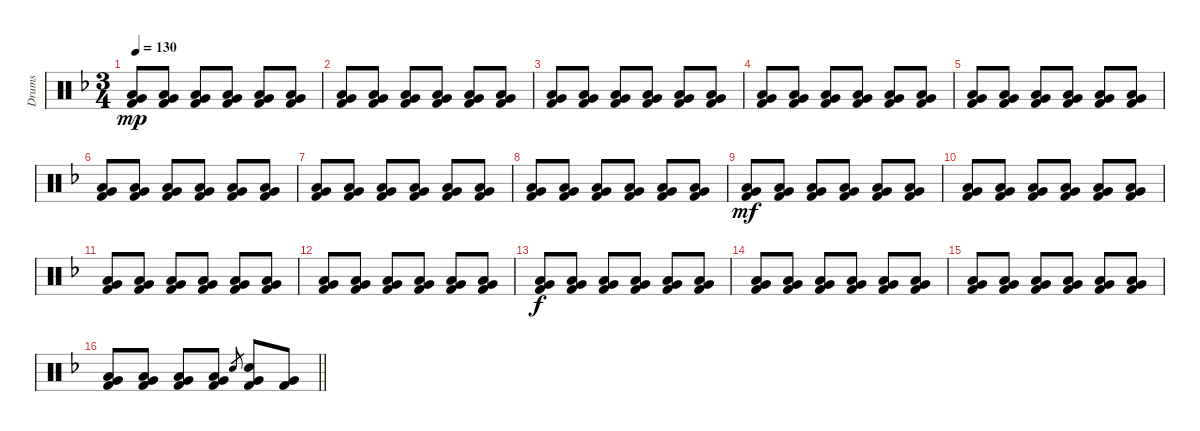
\track ("Drums" "Drums") {instrument percussion}
\staff {score}
\articulation defaults
\ts (3 4)
\section ("" "")
\tempo 130
\clef neutral
\ks f
("Low Tom (hit)" "Very Low Tom (hit)" "Kick (hit) 2").8{dy mp} ("Low Tom (hit)" "Very Low Tom (hit)" "Kick (hit) 2").8 ("Low Tom (hit)" "Very Low Tom (hit)" "Kick (hit) 2").8 ("Low Tom (hit)" "Very Low Tom (hit)" "Kick (hit) 2").8 ("Low Tom (hit)" "Very Low Tom (hit)" "Kick (hit) 2").8 ("Low Tom (hit)" "Very Low Tom (hit)" "Kick (hit) 2").8 |
("Low Tom (hit)" "Very Low Tom (hit)" "Kick (hit) 2").8 ("Low Tom (hit)" "Very Low Tom (hit)" "Kick (hit) 2").8 ("Low Tom (hit)" "Very Low Tom (hit)" "Kick (hit) 2").8 ("Low Tom (hit)" "Very Low Tom (hit)" "Kick (hit) 2").8 ("Low Tom (hit)" "Very Low Tom (hit)" "Kick (hit) 2").8 ("Low Tom (hit)" "Very Low Tom (hit)" "Kick (hit) 2").8 |
("Low Tom (hit)" "Very Low Tom (hit)" "Kick (hit) 2").8 ("Low Tom (hit)" "Very Low Tom (hit)" "Kick (hit) 2").8 ("Low Tom (hit)" "Very Low Tom (hit)" "Kick (hit) 2").8 ("Low Tom (hit)" "Very Low Tom (hit)" "Kick (hit) 2").8 ("Low Tom (hit)" "Very Low Tom (hit)" "Kick (hit) 2").8 ("Low Tom (hit)" "Very Low Tom (hit)" "Kick (hit) 2").8 |
("Low Tom (hit)" "Very Low Tom (hit)" "Kick (hit) 2").8 ("Low Tom (hit)" "Very Low Tom (hit)" "Kick (hit) 2").8 ("Low Tom (hit)" "Very Low Tom (hit)" "Kick (hit) 2").8 ("Low Tom (hit)" "Very Low Tom (hit)" "Kick (hit) 2").8 ("Low Tom (hit)" "Very Low Tom (hit)" "Kick (hit) 2").8 ("Low Tom (hit)" "Very Low Tom (hit)" "Kick (hit) 2").8 |
("Low Tom (hit)" "Very Low Tom (hit)" "Kick (hit) 2").8 ("Low Tom (hit)" "Very Low Tom (hit)" "Kick (hit) 2").8 ("Low Tom (hit)" "Very Low Tom (hit)" "Kick (hit) 2").8 ("Low Tom (hit)" "Very Low Tom (hit)" "Kick (hit) 2").8 ("Low Tom (hit)" "Very Low Tom (hit)" "Kick (hit) 2").8 ("Low Tom (hit)" "Very Low Tom (hit)" "Kick (hit) 2").8 |
("Low Tom (hit)" "Very Low Tom (hit)" "Kick (hit) 2").8 ("Low Tom (hit)" "Very Low Tom (hit)" "Kick (hit) 2").8 ("Low Tom (hit)" "Very Low Tom (hit)" "Kick (hit) 2").8 ("Low Tom (hit)" "Very Low Tom (hit)" "Kick (hit) 2").8 ("Low Tom (hit)" "Very Low Tom (hit)" "Kick (hit) 2").8 ("Low Tom (hit)" "Very Low Tom (hit)" "Kick (hit) 2").8 |
("Low Tom (hit)" "Very Low Tom (hit)" "Kick (hit) 2").8 ("Low Tom (hit)" "Very Low Tom (hit)" "Kick (hit) 2").8 ("Low Tom (hit)" "Very Low Tom (hit)" "Kick (hit) 2").8 ("Low Tom (hit)" "Very Low Tom (hit)" "Kick (hit) 2").8 ("Low Tom (hit)" "Very Low Tom (hit)" "Kick (hit) 2").8 ("Low Tom (hit)" "Very Low Tom (hit)" "Kick (hit) 2").8 |
("Low Tom (hit)" "Very Low Tom (hit)" "Kick (hit) 2").8 ("Low Tom (hit)" "Very Low Tom (hit)" "Kick (hit) 2").8 ("Low Tom (hit)" "Very Low Tom (hit)" "Kick (hit) 2").8 ("Low Tom (hit)" "Very Low Tom (hit)" "Kick (hit) 2").8 ("Low Tom (hit)" "Very Low Tom (hit)" "Kick (hit) 2").8 ("Low Tom (hit)" "Very Low Tom (hit)" "Kick (hit) 2").8 |
("Low Tom (hit)" "Very Low Tom (hit)" "Kick (hit) 2").8{dy mf} ("Low Tom (hit)" "Very Low Tom (hit)" "Kick (hit) 2").8 ("Low Tom (hit)" "Very Low Tom (hit)" "Kick (hit) 2").8 ("Low Tom (hit)" "Very Low Tom (hit)" "Kick (hit) 2").8 ("Low Tom (hit)" "Very Low Tom (hit)" "Kick (hit) 2").8 ("Low Tom (hit)" "Very Low Tom (hit)" "Kick (hit) 2").8 |
("Low Tom (hit)" "Very Low Tom (hit)" "Kick (hit) 2").8 ("Low Tom (hit)" "Very Low Tom (hit)" "Kick (hit) 2").8 ("Low Tom (hit)" "Very Low Tom (hit)" "Kick (hit) 2").8 ("Low Tom (hit)" "Very Low Tom (hit)" "Kick (hit) 2").8 ("Low Tom (hit)" "Very Low Tom (hit)" "Kick (hit) 2").8 ("Low Tom (hit)" "Very Low Tom (hit)" "Kick (hit) 2").8 |
("Low Tom (hit)" "Very Low Tom (hit)" "Kick (hit) 2").8 ("Low Tom (hit)" "Very Low Tom (hit)" "Kick (hit) 2").8 ("Low Tom (hit)" "Very Low Tom (hit)" "Kick (hit) 2").8 ("Low Tom (hit)" "Very Low Tom (hit)" "Kick (hit) 2").8 ("Low Tom (hit)" "Very Low Tom (hit)" "Kick (hit) 2").8 ("Low Tom (hit)" "Very Low Tom (hit)" "Kick (hit) 2").8 |
("Low Tom (hit)" "Very Low Tom (hit)" "Kick (hit) 2").8 ("Low Tom (hit)" "Very Low Tom (hit)" "Kick (hit) 2").8 ("Low Tom (hit)" "Very Low Tom (hit)" "Kick (hit) 2").8 ("Low Tom (hit)" "Very Low Tom (hit)" "Kick (hit) 2").8 ("Low Tom (hit)" "Very Low Tom (hit)" "Kick (hit) 2").8 ("Low Tom (hit)" "Very Low Tom (hit)" "Kick (hit) 2").8 |
("Low Tom (hit)" "Very Low Tom (hit)" "Kick (hit) 2").8{dy f} ("Low Tom (hit)" "Very Low Tom (hit)" "Kick (hit) 2").8 ("Low Tom (hit)" "Very Low Tom (hit)" "Kick (hit) 2").8 ("Low Tom (hit)" "Very Low Tom (hit)" "Kick (hit) 2").8 ("Low Tom (hit)" "Very Low Tom (hit)" "Kick (hit) 2").8 ("Low Tom (hit)" "Very Low Tom (hit)" "Kick (hit) 2").8 |
("Low Tom (hit)" "Very Low Tom (hit)" "Kick (hit) 2").8 ("Low Tom (hit)" "Very Low Tom (hit)" "Kick (hit) 2").8 ("Low Tom (hit)" "Very Low Tom (hit)" "Kick (hit) 2").8 ("Low Tom (hit)" "Very Low Tom (hit)" "Kick (hit) 2").8 ("Low Tom (hit)" "Very Low Tom (hit)" "Kick (hit) 2").8 ("Low Tom (hit)" "Very Low Tom (hit)" "Kick (hit) 2").8 |
("Low Tom (hit)" "Very Low Tom (hit)" "Kick (hit) 2").8 ("Low Tom (hit)" "Very Low Tom (hit)" "Kick (hit) 2").8 ("Low Tom (hit)" "Very Low Tom (hit)" "Kick (hit) 2").8 ("Low Tom (hit)" "Very Low Tom (hit)" "Kick (hit) 2").8 ("Low Tom (hit)" "Very Low Tom (hit)" "Kick (hit) 2").8 ("Low Tom (hit)" "Very Low Tom (hit)" "Kick (hit) 2").8 |
\barLineRight lightlight
("Low Tom (hit)" "Very Low Tom (hit)" "Kick (hit) 2").8 ("Low Tom (hit)" "Very Low Tom (hit)" "Kick (hit) 2").8 ("Low Tom (hit)" "Very Low Tom (hit)" "Kick (hit) 2").8 ("Low Tom (hit)" "Very Low Tom (hit)" "Kick (hit) 2").8 "Electric Snare (hit)".8{gr} ("Electric Snare (hit)" "Very Low Tom (hit)" "Kick (hit) 2").8 ("Very Low Tom (hit)" "Kick (hit) 2").8
